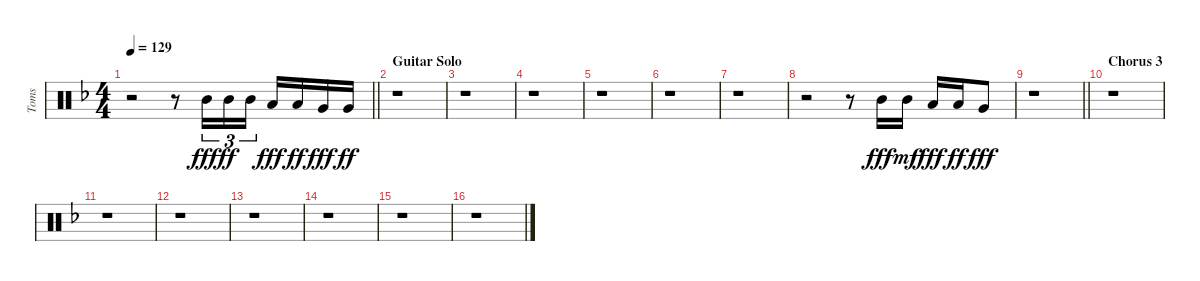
\track ("Toms" "Toms") {instrument percussion}
\staff {score}
\articulation defaults
\ts (4 4)
\tempo 129
\clef neutral
\barLineRight lightlight
\ks dminor
r.2{dy ff} r.8 "Mid Tom (hit)".16{tu (3 2) dy fff balance 10} "Mid Tom (hit)".16{tu (3 2) dy ff} "Mid Tom (hit)".16{tu (3 2)} "Low Tom (hit)".16{dy fff balance 6} "Low Tom (hit)".16{dy ff} "Very Low Tom (hit)".16{dy fff balance 4} "Very Low Tom (hit)".16{dy ff} |
\section ("" "Guitar Solo")
r.1 |
r.1 |
r.1 |
r.1 |
r.1 |
r.1 |
r.2 r.8 "Mid Tom (hit)".16{dy fff balance 10} "Mid Tom (hit)".16{dy mf} "Low Tom (hit)".16{dy fff balance 6} "Low Tom (hit)".16{dy ff} "Very Low Tom (hit)".8{dy fff balance 4} |
\barLineRight lightlight
r.1 |
\section ("" "Chorus 3")
r.1 |
r.1 |
r.1 |
r.1 |
r.1 |
r.1 |
r.1
